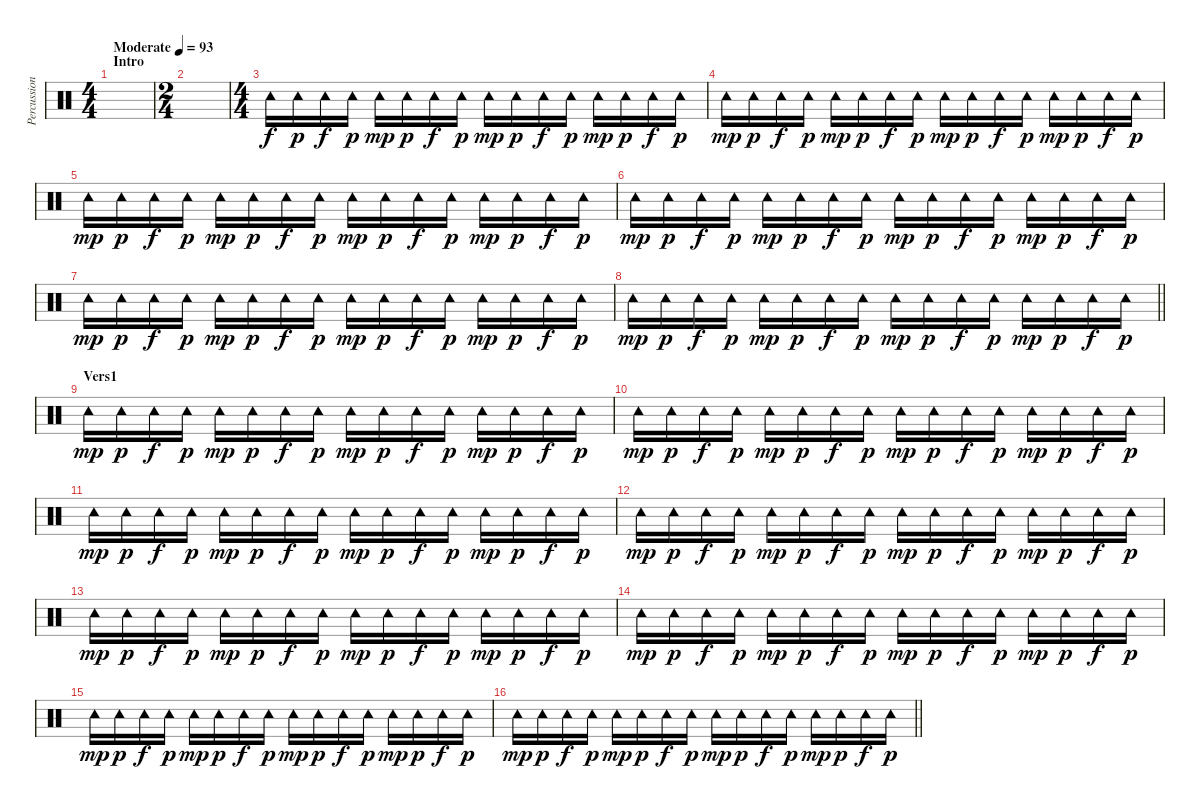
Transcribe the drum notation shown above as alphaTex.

\track ("Percussion" "Percussion") {instrument percussion}
\staff {score}
\articulation defaults
\ts (4 4)
\section ("" "Intro")
\tempo (93 "Moderate")
\clef neutral
\ks c
|
\ts (2 4)
|
\ts (4 4)
"Tambourine (hit)".16 "Tambourine (hit)".16{dy p} "Tambourine (hit)".16{dy f} "Tambourine (hit)".16{dy p} "Tambourine (hit)".16{dy mp} "Tambourine (hit)".16{dy p} "Tambourine (hit)".16{dy f} "Tambourine (hit)".16{dy p} "Tambourine (hit)".16{dy mp} "Tambourine (hit)".16{dy p} "Tambourine (hit)".16{dy f} "Tambourine (hit)".16{dy p} "Tambourine (hit)".16{dy mp} "Tambourine (hit)".16{dy p} "Tambourine (hit)".16{dy f} "Tambourine (hit)".16{dy p} |
"Tambourine (hit)".16{dy mp} "Tambourine (hit)".16{dy p} "Tambourine (hit)".16{dy f} "Tambourine (hit)".16{dy p} "Tambourine (hit)".16{dy mp} "Tambourine (hit)".16{dy p} "Tambourine (hit)".16{dy f} "Tambourine (hit)".16{dy p} "Tambourine (hit)".16{dy mp} "Tambourine (hit)".16{dy p} "Tambourine (hit)".16{dy f} "Tambourine (hit)".16{dy p} "Tambourine (hit)".16{dy mp} "Tambourine (hit)".16{dy p} "Tambourine (hit)".16{dy f} "Tambourine (hit)".16{dy p} |
"Tambourine (hit)".16{dy mp} "Tambourine (hit)".16{dy p} "Tambourine (hit)".16{dy f} "Tambourine (hit)".16{dy p} "Tambourine (hit)".16{dy mp} "Tambourine (hit)".16{dy p} "Tambourine (hit)".16{dy f} "Tambourine (hit)".16{dy p} "Tambourine (hit)".16{dy mp} "Tambourine (hit)".16{dy p} "Tambourine (hit)".16{dy f} "Tambourine (hit)".16{dy p} "Tambourine (hit)".16{dy mp} "Tambourine (hit)".16{dy p} "Tambourine (hit)".16{dy f} "Tambourine (hit)".16{dy p} |
"Tambourine (hit)".16{dy mp} "Tambourine (hit)".16{dy p} "Tambourine (hit)".16{dy f} "Tambourine (hit)".16{dy p} "Tambourine (hit)".16{dy mp} "Tambourine (hit)".16{dy p} "Tambourine (hit)".16{dy f} "Tambourine (hit)".16{dy p} "Tambourine (hit)".16{dy mp} "Tambourine (hit)".16{dy p} "Tambourine (hit)".16{dy f} "Tambourine (hit)".16{dy p} "Tambourine (hit)".16{dy mp} "Tambourine (hit)".16{dy p} "Tambourine (hit)".16{dy f} "Tambourine (hit)".16{dy p} |
"Tambourine (hit)".16{dy mp} "Tambourine (hit)".16{dy p} "Tambourine (hit)".16{dy f} "Tambourine (hit)".16{dy p} "Tambourine (hit)".16{dy mp} "Tambourine (hit)".16{dy p} "Tambourine (hit)".16{dy f} "Tambourine (hit)".16{dy p} "Tambourine (hit)".16{dy mp} "Tambourine (hit)".16{dy p} "Tambourine (hit)".16{dy f} "Tambourine (hit)".16{dy p} "Tambourine (hit)".16{dy mp} "Tambourine (hit)".16{dy p} "Tambourine (hit)".16{dy f} "Tambourine (hit)".16{dy p} |
\barLineRight lightlight "Tambourine (hit)".16{dy mp} "Tambourine (hit)".16{dy p} "Tambourine (hit)".16{dy f} "Tambourine (hit)".16{dy p} "Tambourine (hit)".16{dy mp} "Tambourine (hit)".16{dy p} "Tambourine (hit)".16{dy f} "Tambourine (hit)".16{dy p} "Tambourine (hit)".16{dy mp} "Tambourine (hit)".16{dy p} "Tambourine (hit)".16{dy f} "Tambourine (hit)".16{dy p} "Tambourine (hit)".16{dy mp} "Tambourine (hit)".16{dy p} "Tambourine (hit)".16{dy f} "Tambourine (hit)".16{dy p}
|
\section ("" "Vers1")
"Tambourine (hit)".16{dy mp} "Tambourine (hit)".16{dy p} "Tambourine (hit)".16{dy f} "Tambourine (hit)".16{dy p} "Tambourine (hit)".16{dy mp} "Tambourine (hit)".16{dy p} "Tambourine (hit)".16{dy f} "Tambourine (hit)".16{dy p} "Tambourine (hit)".16{dy mp} "Tambourine (hit)".16{dy p} "Tambourine (hit)".16{dy f} "Tambourine (hit)".16{dy p} "Tambourine (hit)".16{dy mp} "Tambourine (hit)".16{dy p} "Tambourine (hit)".16{dy f} "Tambourine (hit)".16{dy p} |
"Tambourine (hit)".16{dy mp} "Tambourine (hit)".16{dy p} "Tambourine (hit)".16{dy f} "Tambourine (hit)".16{dy p} "Tambourine (hit)".16{dy mp} "Tambourine (hit)".16{dy p} "Tambourine (hit)".16{dy f} "Tambourine (hit)".16{dy p} "Tambourine (hit)".16{dy mp} "Tambourine (hit)".16{dy p} "Tambourine (hit)".16{dy f} "Tambourine (hit)".16{dy p} "Tambourine (hit)".16{dy mp} "Tambourine (hit)".16{dy p} "Tambourine (hit)".16{dy f} "Tambourine (hit)".16{dy p} |
"Tambourine (hit)".16{dy mp} "Tambourine (hit)".16{dy p} "Tambourine (hit)".16{dy f} "Tambourine (hit)".16{dy p} "Tambourine (hit)".16{dy mp} "Tambourine (hit)".16{dy p} "Tambourine (hit)".16{dy f} "Tambourine (hit)".16{dy p} "Tambourine (hit)".16{dy mp} "Tambourine (hit)".16{dy p} "Tambourine (hit)".16{dy f} "Tambourine (hit)".16{dy p} "Tambourine (hit)".16{dy mp} "Tambourine (hit)".16{dy p} "Tambourine (hit)".16{dy f} "Tambourine (hit)".16{dy p} |
"Tambourine (hit)".16{dy mp} "Tambourine (hit)".16{dy p} "Tambourine (hit)".16{dy f} "Tambourine (hit)".16{dy p} "Tambourine (hit)".16{dy mp} "Tambourine (hit)".16{dy p} "Tambourine (hit)".16{dy f} "Tambourine (hit)".16{dy p} "Tambourine (hit)".16{dy mp} "Tambourine (hit)".16{dy p} "Tambourine (hit)".16{dy f} "Tambourine (hit)".16{dy p} "Tambourine (hit)".16{dy mp} "Tambourine (hit)".16{dy p} "Tambourine (hit)".16{dy f} "Tambourine (hit)".16{dy p} |
"Tambourine (hit)".16{dy mp} "Tambourine (hit)".16{dy p} "Tambourine (hit)".16{dy f} "Tambourine (hit)".16{dy p} "Tambourine (hit)".16{dy mp} "Tambourine (hit)".16{dy p} "Tambourine (hit)".16{dy f} "Tambourine (hit)".16{dy p} "Tambourine (hit)".16{dy mp} "Tambourine (hit)".16{dy p} "Tambourine (hit)".16{dy f} "Tambourine (hit)".16{dy p} "Tambourine (hit)".16{dy mp} "Tambourine (hit)".16{dy p} "Tambourine (hit)".16{dy f} "Tambourine (hit)".16{dy p} |
"Tambourine (hit)".16{dy mp} "Tambourine (hit)".16{dy p} "Tambourine (hit)".16{dy f} "Tambourine (hit)".16{dy p} "Tambourine (hit)".16{dy mp} "Tambourine (hit)".16{dy p} "Tambourine (hit)".16{dy f} "Tambourine (hit)".16{dy p} "Tambourine (hit)".16{dy mp} "Tambourine (hit)".16{dy p} "Tambourine (hit)".16{dy f} "Tambourine (hit)".16{dy p} "Tambourine (hit)".16{dy mp} "Tambourine (hit)".16{dy p} "Tambourine (hit)".16{dy f} "Tambourine (hit)".16{dy p} |
"Tambourine (hit)".16{dy mp} "Tambourine (hit)".16{dy p} "Tambourine (hit)".16{dy f} "Tambourine (hit)".16{dy p} "Tambourine (hit)".16{dy mp} "Tambourine (hit)".16{dy p} "Tambourine (hit)".16{dy f} "Tambourine (hit)".16{dy p} "Tambourine (hit)".16{dy mp} "Tambourine (hit)".16{dy p} "Tambourine (hit)".16{dy f} "Tambourine (hit)".16{dy p} "Tambourine (hit)".16{dy mp} "Tambourine (hit)".16{dy p} "Tambourine (hit)".16{dy f} "Tambourine (hit)".16{dy p} |
\barLineRight lightlight "Tambourine (hit)".16{dy mp} "Tambourine (hit)".16{dy p} "Tambourine (hit)".16{dy f} "Tambourine (hit)".16{dy p} "Tambourine (hit)".16{dy mp} "Tambourine (hit)".16{dy p} "Tambourine (hit)".16{dy f} "Tambourine (hit)".16{dy p} "Tambourine (hit)".16{dy mp} "Tambourine (hit)".16{dy p} "Tambourine (hit)".16{dy f} "Tambourine (hit)".16{dy p} "Tambourine (hit)".16{dy mp} "Tambourine (hit)".16{dy p} "Tambourine (hit)".16{dy f} "Tambourine (hit)".16{dy p}
